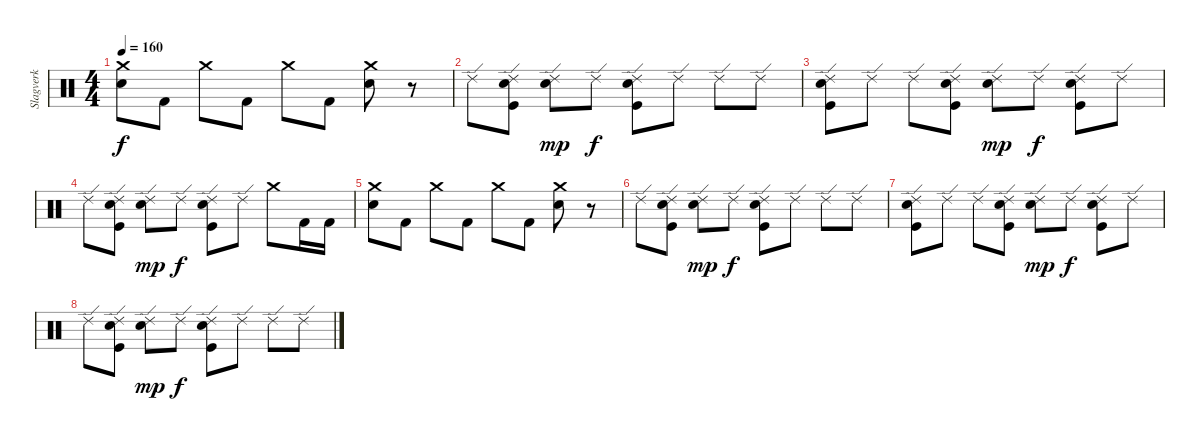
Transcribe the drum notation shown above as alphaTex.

\track ("Slagverk" "Slagverk") {instrument percussion}
\staff {score}
\articulation defaults
\ts (4 4)
\tempo 160
\clef neutral
\ks c
("Crash medium (hit)" "Electric Snare (hit)").8{dy f} "Kick (hit) 2".8 "Crash medium (hit)".8 "Kick (hit) 2".8 "Crash medium (hit)".8 "Kick (hit) 2".8 ("Crash medium (hit)" "Electric Snare (hit)").8 r.8 |
"Ride (edge) 2".8 ("Ride (edge) 2" "Kick (hit)" "Hand Clap (hit)").8 ("Ride (edge) 2" "Snare (hit) 2").8{dy mp} "Ride (edge) 2".8{dy f} ("Ride (edge) 2" "Kick (hit)" "Hand Clap (hit)").8 "Ride (edge) 2".8 "Ride (edge) 2".8 "Ride (edge) 2".8 |
("Ride (edge) 2" "Kick (hit)" "Hand Clap (hit)").8 "Ride (edge) 2".8 "Ride (edge) 2".8 ("Ride (edge) 2" "Kick (hit)" "Hand Clap (hit)").8 ("Ride (edge) 2" "Snare (hit) 2").8{dy mp} "Ride (edge) 2".8{dy f} ("Ride (edge) 2" "Kick (hit)" "Hand Clap (hit)").8 "Ride (edge) 2".8 |
"Ride (edge) 2".8 ("Ride (edge) 2" "Kick (hit)" "Hand Clap (hit)").8 ("Ride (edge) 2" "Snare (hit) 2").8{dy mp} "Ride (edge) 2".8{dy f} ("Ride (edge) 2" "Kick (hit)" "Hand Clap (hit)").8 "Ride (edge) 2".8 "Crash medium (hit)".8 "Kick (hit) 2".16 "Kick (hit) 2".16 |
("Crash medium (hit)" "Electric Snare (hit)").8 "Kick (hit) 2".8 "Crash medium (hit)".8 "Kick (hit) 2".8 "Crash medium (hit)".8 "Kick (hit) 2".8 ("Crash medium (hit)" "Electric Snare (hit)").8 r.8 |
"Ride (edge) 2".8 ("Ride (edge) 2" "Kick (hit)" "Hand Clap (hit)").8 ("Ride (edge) 2" "Snare (hit) 2").8{dy mp} "Ride (edge) 2".8{dy f} ("Ride (edge) 2" "Kick (hit)" "Hand Clap (hit)").8 "Ride (edge) 2".8 "Ride (edge) 2".8 "Ride (edge) 2".8 |
("Ride (edge) 2" "Kick (hit)" "Hand Clap (hit)").8 "Ride (edge) 2".8 "Ride (edge) 2".8 ("Ride (edge) 2" "Kick (hit)" "Hand Clap (hit)").8 ("Ride (edge) 2" "Snare (hit) 2").8{dy mp} "Ride (edge) 2".8{dy f} ("Ride (edge) 2" "Kick (hit)" "Hand Clap (hit)").8 "Ride (edge) 2".8 |
"Ride (edge) 2".8 ("Ride (edge) 2" "Kick (hit)" "Hand Clap (hit)").8 ("Ride (edge) 2" "Snare (hit) 2").8{dy mp} "Ride (edge) 2".8{dy f} ("Ride (edge) 2" "Kick (hit)" "Hand Clap (hit)").8 "Ride (edge) 2".8 "Ride (edge) 2".8 "Ride (edge) 2".8
